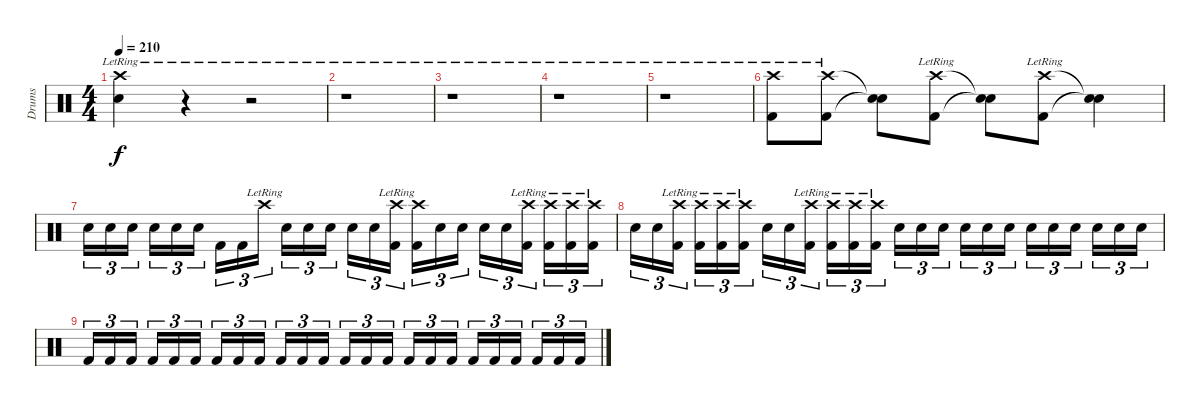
\track ("Drums" "Drums") {instrument percussion}
\staff {score}
\articulation defaults
\ts (4 4)
\tempo 210
\clef neutral
\ks c
("Crash high (hit)"{lr} "Snare (hit) 2").4{dy f} r.4 r.2 |
r.1 |
r.1 |
r.1 |
r.1 |
("Crash high (hit)"{lr} "Kick (hit) 2").8 ("Crash high (hit)"{lr} "Kick (hit) 2").8 ("Snare (hit)"{t} "Snare (hit)"{t}).8 ("Crash high (hit)"{lr} "Kick (hit) 2").8 ("Snare (hit)"{t} "Snare (hit)"{t}).8 ("Crash high (hit)"{lr} "Kick (hit) 2").8 ("Snare (hit)"{t} "Snare (hit)"{t}).4 |
"Snare (hit) 2".16{tu (3 2)} "Snare (hit) 2".16{tu (3 2)} "Snare (hit) 2".16{tu (3 2)} "Snare (hit) 2".16{tu (3 2)} "Snare (hit) 2".16{tu (3 2)} "Snare (hit) 2".16{tu (3 2)} "Kick (hit) 2".16{tu (3 2)} "Kick (hit) 2".16{tu (3 2)} "Crash high (hit)"{lr}.16{tu (3 2)} "Snare (hit) 2".16{tu (3 2)} "Snare (hit) 2".16{tu (3 2)} "Snare (hit) 2".16{tu (3 2)} "Snare (hit) 2".16{tu (3 2)} "Snare (hit) 2".16{tu (3 2)} ("Crash high (hit)"{lr} "Kick (hit) 2").16{tu (3 2)} ("Crash high (hit)"{lr} "Kick (hit) 2").16{tu (3 2)} "Snare (hit) 2".16{tu (3 2)} "Snare (hit) 2".16{tu (3 2)} "Snare (hit) 2".16{tu (3 2)} "Snare (hit) 2".16{tu (3 2)} ("Crash high (hit)"{lr} "Kick (hit) 2").16{tu (3 2)} ("Crash high (hit)"{lr} "Kick (hit) 2").16{tu (3 2)} ("Crash high (hit)"{lr} "Kick (hit) 2").16{tu (3 2)} ("Crash high (hit)"{lr} "Kick (hit) 2").16{tu (3 2)} |
"Snare (hit) 2".16{tu (3 2)} "Snare (hit) 2".16{tu (3 2)} ("Crash high (hit)"{lr} "Kick (hit) 2").16{tu (3 2)} ("Crash high (hit)"{lr} "Kick (hit) 2").16{tu (3 2)} ("Crash high (hit)"{lr} "Kick (hit) 2").16{tu (3 2)} ("Crash high (hit)"{lr} "Kick (hit) 2").16{tu (3 2)} "Snare (hit) 2".16{tu (3 2)} "Snare (hit) 2".16{tu (3 2)} ("Crash high (hit)"{lr} "Kick (hit) 2").16{tu (3 2)} ("Crash high (hit)"{lr} "Kick (hit) 2").16{tu (3 2)} ("Crash high (hit)"{lr} "Kick (hit) 2").16{tu (3 2)} ("Crash high (hit)"{lr} "Kick (hit) 2").16{tu (3 2)} "Snare (hit) 2".16{tu (3 2)} "Snare (hit) 2".16{tu (3 2)} "Snare (hit) 2".16{tu (3 2)} "Snare (hit) 2".16{tu (3 2)} "Snare (hit) 2".16{tu (3 2)} "Snare (hit) 2".16{tu (3 2)} "Snare (hit) 2".16{tu (3 2)} "Snare (hit) 2".16{tu (3 2)} "Snare (hit) 2".16{tu (3 2)} "Snare (hit) 2".16{tu (3 2)} "Snare (hit) 2".16{tu (3 2)} "Snare (hit) 2".16{tu (3 2)} |
"Kick (hit) 2".16{tu (3 2)} "Kick (hit) 2".16{tu (3 2)} "Kick (hit) 2".16{tu (3 2)} "Kick (hit) 2".16{tu (3 2)} "Kick (hit) 2".16{tu (3 2)} "Kick (hit) 2".16{tu (3 2)} "Kick (hit) 2".16{tu (3 2)} "Kick (hit) 2".16{tu (3 2)} "Kick (hit) 2".16{tu (3 2)} "Kick (hit) 2".16{tu (3 2)} "Kick (hit) 2".16{tu (3 2)} "Kick (hit) 2".16{tu (3 2)} "Kick (hit) 2".16{tu (3 2)} "Kick (hit) 2".16{tu (3 2)} "Kick (hit) 2".16{tu (3 2)} "Kick (hit) 2".16{tu (3 2)} "Kick (hit) 2".16{tu (3 2)} "Kick (hit) 2".16{tu (3 2)} "Kick (hit) 2".16{tu (3 2)} "Kick (hit) 2".16{tu (3 2)} "Kick (hit) 2".16{tu (3 2)} "Kick (hit) 2".16{tu (3 2)} "Kick (hit) 2".16{tu (3 2)} "Kick (hit) 2".16{tu (3 2)}
